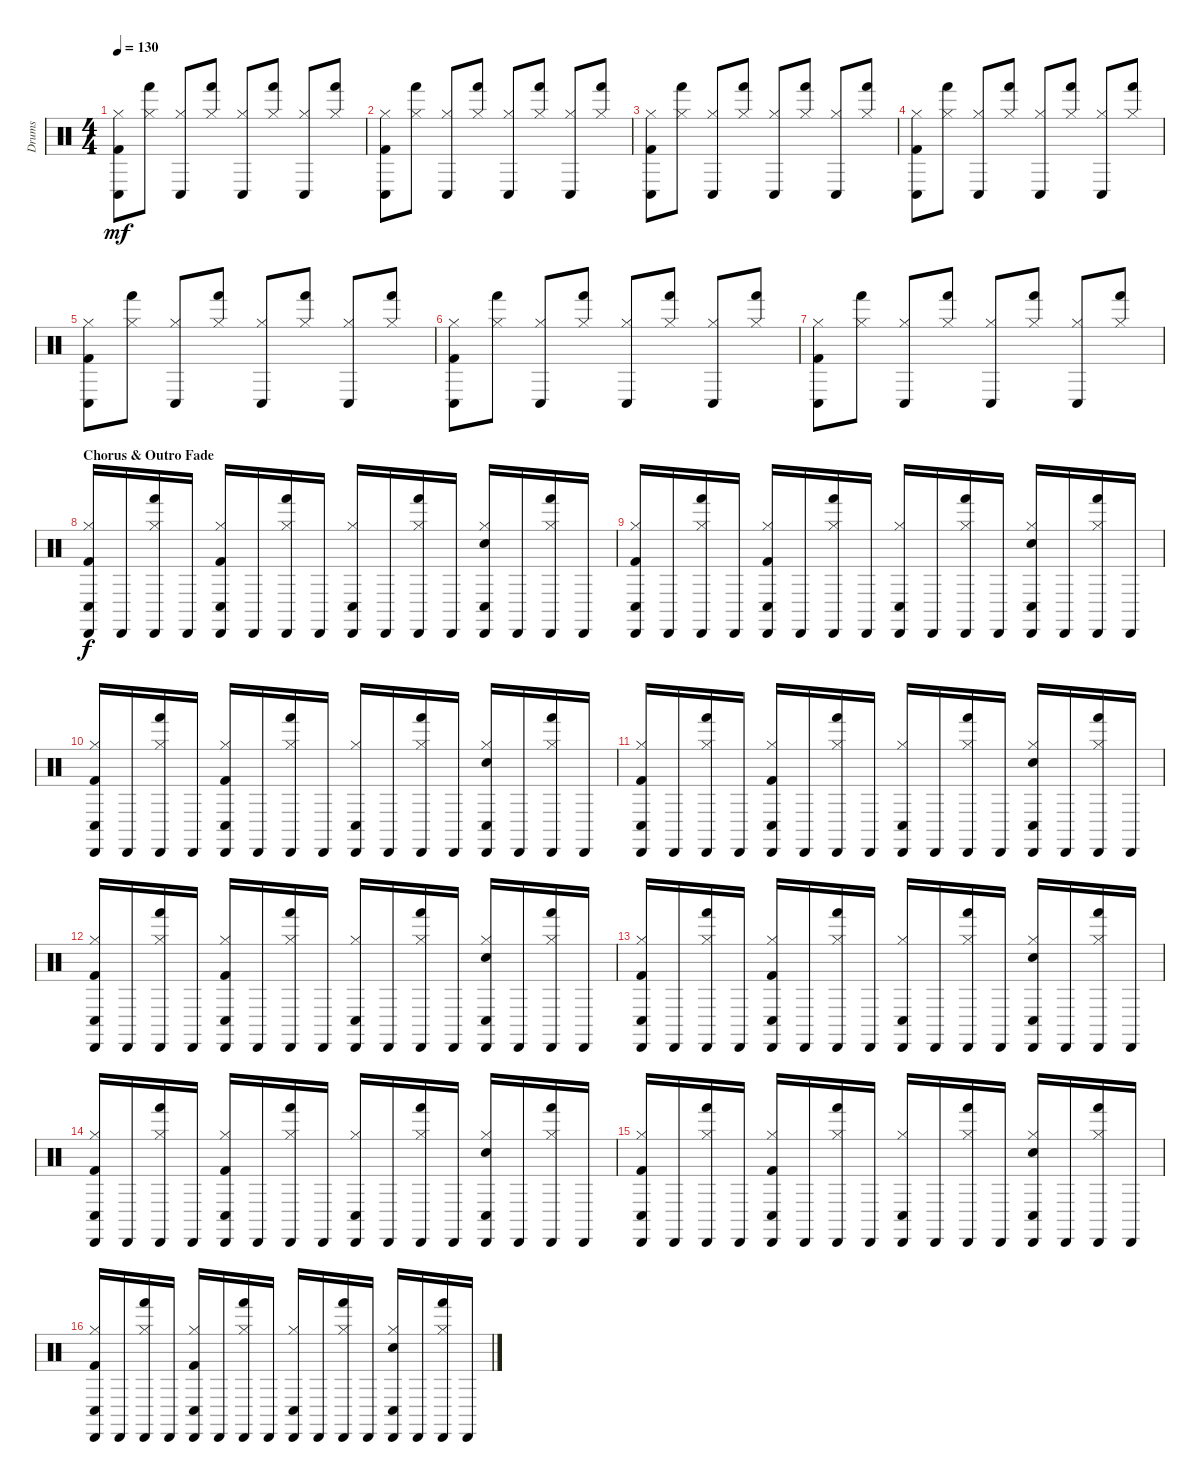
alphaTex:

\track ("Drums" "Drums") {instrument percussion}
\staff {score}
\articulation defaults
\ts (4 4)
\tempo 130
\clef neutral
\ks c
("Kick (hit) 2" "Conga low (hit)" "Hi-Hat (closed)").8{dy mf} ("Hand (hit)" "Hi-Hat (closed)").8 ("Hi-Hat (closed)" "Conga low (hit)").8 ("Hand (hit)" "Hi-Hat (closed)").8 ("Conga low (hit)" "Hi-Hat (closed)").8 ("Hi-Hat (closed)" "Hand (hit)").8 ("Hi-Hat (closed)" "Conga low (hit)").8 ("Hi-Hat (closed)" "Hand (hit)").8 |
("Kick (hit) 2" "Conga low (hit)" "Hi-Hat (closed)").8 ("Hand (hit)" "Hi-Hat (closed)").8 ("Hi-Hat (closed)" "Conga low (hit)").8 ("Hand (hit)" "Hi-Hat (closed)").8 ("Conga low (hit)" "Hi-Hat (closed)").8 ("Hi-Hat (closed)" "Hand (hit)").8 ("Hi-Hat (closed)" "Conga low (hit)").8 ("Hi-Hat (closed)" "Hand (hit)").8 |
("Kick (hit) 2" "Conga low (hit)" "Hi-Hat (closed)").8 ("Hand (hit)" "Hi-Hat (closed)").8 ("Hi-Hat (closed)" "Conga low (hit)").8 ("Hand (hit)" "Hi-Hat (closed)").8 ("Conga low (hit)" "Hi-Hat (closed)").8 ("Hi-Hat (closed)" "Hand (hit)").8 ("Hi-Hat (closed)" "Conga low (hit)").8 ("Hi-Hat (closed)" "Hand (hit)").8 |
("Kick (hit) 2" "Conga low (hit)" "Hi-Hat (closed)").8 ("Hand (hit)" "Hi-Hat (closed)").8 ("Hi-Hat (closed)" "Conga low (hit)").8 ("Hand (hit)" "Hi-Hat (closed)").8 ("Conga low (hit)" "Hi-Hat (closed)").8 ("Hi-Hat (closed)" "Hand (hit)").8 ("Hi-Hat (closed)" "Conga low (hit)").8 ("Hi-Hat (closed)" "Hand (hit)").8 |
("Kick (hit) 2" "Conga low (hit)" "Hi-Hat (closed)").8 ("Hand (hit)" "Hi-Hat (closed)").8 ("Hi-Hat (closed)" "Conga low (hit)").8 ("Hand (hit)" "Hi-Hat (closed)").8 ("Conga low (hit)" "Hi-Hat (closed)").8 ("Hi-Hat (closed)" "Hand (hit)").8 ("Hi-Hat (closed)" "Conga low (hit)").8 ("Hi-Hat (closed)" "Hand (hit)").8 |
("Kick (hit) 2" "Conga low (hit)" "Hi-Hat (closed)").8 ("Hand (hit)" "Hi-Hat (closed)").8 ("Hi-Hat (closed)" "Conga low (hit)").8 ("Hand (hit)" "Hi-Hat (closed)").8 ("Conga low (hit)" "Hi-Hat (closed)").8 ("Hi-Hat (closed)" "Hand (hit)").8 ("Hi-Hat (closed)" "Conga low (hit)").8 ("Hi-Hat (closed)" "Hand (hit)").8 |
("Kick (hit) 2" "Conga low (hit)" "Hi-Hat (closed)").8 ("Hand (hit)" "Hi-Hat (closed)").8 ("Hi-Hat (closed)" "Conga low (hit)").8 ("Hand (hit)" "Hi-Hat (closed)").8 ("Conga low (hit)" "Hi-Hat (closed)").8 ("Hi-Hat (closed)" "Hand (hit)").8 ("Hi-Hat (closed)" "Conga low (hit)").8 ("Hi-Hat (closed)" "Hand (hit)").8 |
\section ("" "Chorus & Outro Fade")
("Kick (hit) 2" "Cabasa (hit)" "Conga low (hit)" "Hi-Hat (closed)").16{dy f} "Cabasa (hit)".16 ("Hand (hit)" "Hi-Hat (closed)" "Cabasa (hit)").16 "Cabasa (hit)".16 ("Cabasa (hit)" "Hi-Hat (closed)" "Kick (hit) 2" "Conga low (hit)").16 "Cabasa (hit)".16 ("Hand (hit)" "Cabasa (hit)" "Hi-Hat (closed)").16 "Cabasa (hit)".16 ("Hi-Hat (closed)" "Conga low (hit)" "Cabasa (hit)").16 "Cabasa (hit)".16 ("Hand (hit)" "Cabasa (hit)" "Hi-Hat (closed)").16 "Cabasa (hit)".16 ("Hand Clap (hit)" "Cabasa (hit)" "Hi-Hat (closed)" "Conga low (hit)").16 "Cabasa (hit)".16 ("Cabasa (hit)" "Hi-Hat (closed)" "Hand (hit)").16 "Cabasa (hit)".16 |
("Kick (hit) 2" "Cabasa (hit)" "Conga low (hit)" "Hi-Hat (closed)").16 "Cabasa (hit)".16 ("Hand (hit)" "Hi-Hat (closed)" "Cabasa (hit)").16 "Cabasa (hit)".16 ("Cabasa (hit)" "Hi-Hat (closed)" "Kick (hit) 2" "Conga low (hit)").16 "Cabasa (hit)".16 ("Hand (hit)" "Cabasa (hit)" "Hi-Hat (closed)").16 "Cabasa (hit)".16 ("Hi-Hat (closed)" "Conga low (hit)" "Cabasa (hit)").16 "Cabasa (hit)".16 ("Hand (hit)" "Cabasa (hit)" "Hi-Hat (closed)").16 "Cabasa (hit)".16 ("Hand Clap (hit)" "Cabasa (hit)" "Hi-Hat (closed)" "Conga low (hit)").16 "Cabasa (hit)".16 ("Cabasa (hit)" "Hi-Hat (closed)" "Hand (hit)").16 "Cabasa (hit)".16 |
("Kick (hit) 2" "Cabasa (hit)" "Conga low (hit)" "Hi-Hat (closed)").16 "Cabasa (hit)".16 ("Hand (hit)" "Hi-Hat (closed)" "Cabasa (hit)").16 "Cabasa (hit)".16 ("Cabasa (hit)" "Hi-Hat (closed)" "Kick (hit) 2" "Conga low (hit)").16 "Cabasa (hit)".16 ("Hand (hit)" "Cabasa (hit)" "Hi-Hat (closed)").16 "Cabasa (hit)".16 ("Hi-Hat (closed)" "Conga low (hit)" "Cabasa (hit)").16 "Cabasa (hit)".16 ("Hand (hit)" "Cabasa (hit)" "Hi-Hat (closed)").16 "Cabasa (hit)".16 ("Hand Clap (hit)" "Cabasa (hit)" "Hi-Hat (closed)" "Conga low (hit)").16 "Cabasa (hit)".16 ("Cabasa (hit)" "Hi-Hat (closed)" "Hand (hit)").16 "Cabasa (hit)".16 |
("Kick (hit) 2" "Cabasa (hit)" "Conga low (hit)" "Hi-Hat (closed)").16 "Cabasa (hit)".16 ("Hand (hit)" "Hi-Hat (closed)" "Cabasa (hit)").16 "Cabasa (hit)".16 ("Cabasa (hit)" "Hi-Hat (closed)" "Kick (hit) 2" "Conga low (hit)").16 "Cabasa (hit)".16 ("Hand (hit)" "Cabasa (hit)" "Hi-Hat (closed)").16 "Cabasa (hit)".16 ("Hi-Hat (closed)" "Conga low (hit)" "Cabasa (hit)").16 "Cabasa (hit)".16 ("Hand (hit)" "Cabasa (hit)" "Hi-Hat (closed)").16 "Cabasa (hit)".16 ("Hand Clap (hit)" "Cabasa (hit)" "Hi-Hat (closed)" "Conga low (hit)").16 "Cabasa (hit)".16 ("Cabasa (hit)" "Hi-Hat (closed)" "Hand (hit)").16 "Cabasa (hit)".16 |
("Kick (hit) 2" "Cabasa (hit)" "Conga low (hit)" "Hi-Hat (closed)").16 "Cabasa (hit)".16 ("Hand (hit)" "Hi-Hat (closed)" "Cabasa (hit)").16 "Cabasa (hit)".16 ("Cabasa (hit)" "Hi-Hat (closed)" "Kick (hit) 2" "Conga low (hit)").16 "Cabasa (hit)".16 ("Hand (hit)" "Cabasa (hit)" "Hi-Hat (closed)").16 "Cabasa (hit)".16 ("Hi-Hat (closed)" "Conga low (hit)" "Cabasa (hit)").16 "Cabasa (hit)".16 ("Hand (hit)" "Cabasa (hit)" "Hi-Hat (closed)").16 "Cabasa (hit)".16 ("Hand Clap (hit)" "Cabasa (hit)" "Hi-Hat (closed)" "Conga low (hit)").16 "Cabasa (hit)".16 ("Cabasa (hit)" "Hi-Hat (closed)" "Hand (hit)").16 "Cabasa (hit)".16 |
("Kick (hit) 2" "Cabasa (hit)" "Conga low (hit)" "Hi-Hat (closed)").16 "Cabasa (hit)".16 ("Hand (hit)" "Hi-Hat (closed)" "Cabasa (hit)").16 "Cabasa (hit)".16 ("Cabasa (hit)" "Hi-Hat (closed)" "Kick (hit) 2" "Conga low (hit)").16 "Cabasa (hit)".16 ("Hand (hit)" "Cabasa (hit)" "Hi-Hat (closed)").16 "Cabasa (hit)".16 ("Hi-Hat (closed)" "Conga low (hit)" "Cabasa (hit)").16 "Cabasa (hit)".16 ("Hand (hit)" "Cabasa (hit)" "Hi-Hat (closed)").16 "Cabasa (hit)".16 ("Hand Clap (hit)" "Cabasa (hit)" "Hi-Hat (closed)" "Conga low (hit)").16 "Cabasa (hit)".16 ("Cabasa (hit)" "Hi-Hat (closed)" "Hand (hit)").16 "Cabasa (hit)".16 |
("Kick (hit) 2" "Cabasa (hit)" "Conga low (hit)" "Hi-Hat (closed)").16 "Cabasa (hit)".16 ("Hand (hit)" "Hi-Hat (closed)" "Cabasa (hit)").16 "Cabasa (hit)".16 ("Cabasa (hit)" "Hi-Hat (closed)" "Kick (hit) 2" "Conga low (hit)").16 "Cabasa (hit)".16 ("Hand (hit)" "Cabasa (hit)" "Hi-Hat (closed)").16 "Cabasa (hit)".16 ("Hi-Hat (closed)" "Conga low (hit)" "Cabasa (hit)").16 "Cabasa (hit)".16 ("Hand (hit)" "Cabasa (hit)" "Hi-Hat (closed)").16 "Cabasa (hit)".16 ("Hand Clap (hit)" "Cabasa (hit)" "Hi-Hat (closed)" "Conga low (hit)").16 "Cabasa (hit)".16 ("Cabasa (hit)" "Hi-Hat (closed)" "Hand (hit)").16 "Cabasa (hit)".16 |
("Kick (hit) 2" "Cabasa (hit)" "Conga low (hit)" "Hi-Hat (closed)").16 "Cabasa (hit)".16 ("Hand (hit)" "Hi-Hat (closed)" "Cabasa (hit)").16 "Cabasa (hit)".16 ("Cabasa (hit)" "Hi-Hat (closed)" "Kick (hit) 2" "Conga low (hit)").16 "Cabasa (hit)".16 ("Hand (hit)" "Cabasa (hit)" "Hi-Hat (closed)").16 "Cabasa (hit)".16 ("Hi-Hat (closed)" "Conga low (hit)" "Cabasa (hit)").16 "Cabasa (hit)".16 ("Hand (hit)" "Cabasa (hit)" "Hi-Hat (closed)").16 "Cabasa (hit)".16 ("Hand Clap (hit)" "Cabasa (hit)" "Hi-Hat (closed)" "Conga low (hit)").16 "Cabasa (hit)".16 ("Cabasa (hit)" "Hi-Hat (closed)" "Hand (hit)").16 "Cabasa (hit)".16 |
("Kick (hit) 2" "Cabasa (hit)" "Conga low (hit)" "Hi-Hat (closed)").16 "Cabasa (hit)".16 ("Hand (hit)" "Hi-Hat (closed)" "Cabasa (hit)").16 "Cabasa (hit)".16 ("Cabasa (hit)" "Hi-Hat (closed)" "Kick (hit) 2" "Conga low (hit)").16 "Cabasa (hit)".16 ("Hand (hit)" "Cabasa (hit)" "Hi-Hat (closed)").16 "Cabasa (hit)".16 ("Hi-Hat (closed)" "Conga low (hit)" "Cabasa (hit)").16 "Cabasa (hit)".16 ("Hand (hit)" "Cabasa (hit)" "Hi-Hat (closed)").16 "Cabasa (hit)".16 ("Hand Clap (hit)" "Cabasa (hit)" "Hi-Hat (closed)" "Conga low (hit)").16 "Cabasa (hit)".16 ("Cabasa (hit)" "Hi-Hat (closed)" "Hand (hit)").16 "Cabasa (hit)".16
